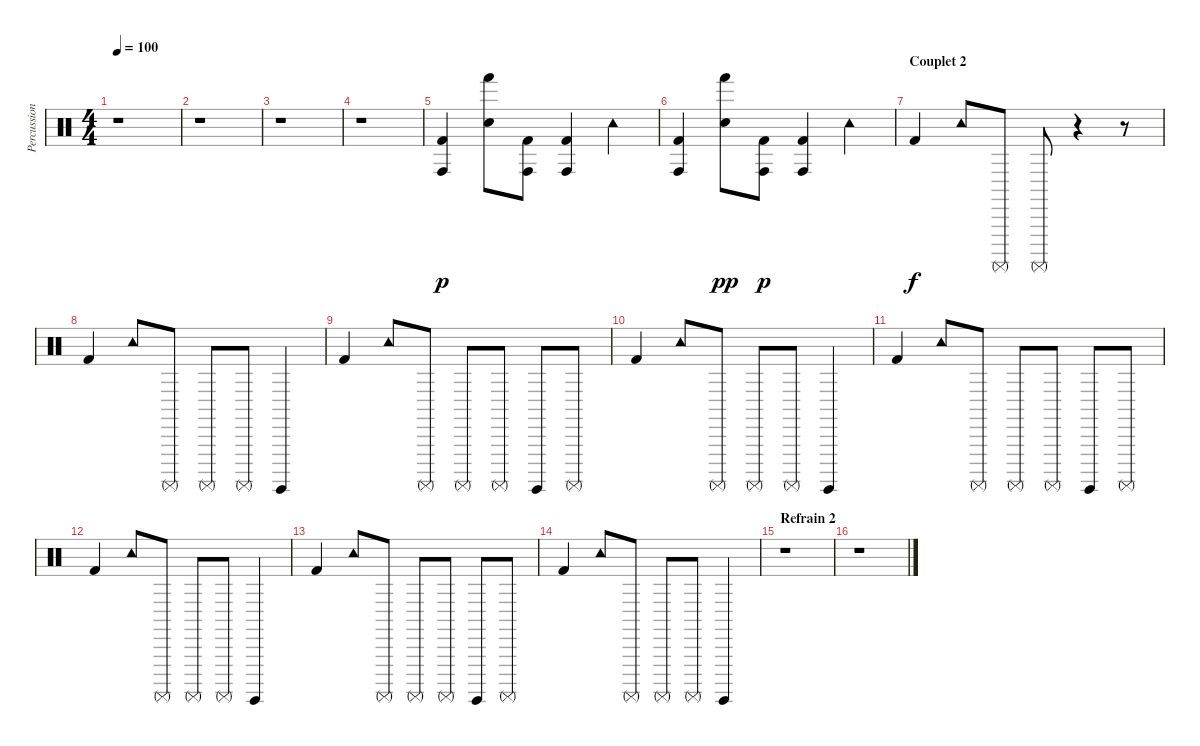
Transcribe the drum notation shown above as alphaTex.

\track ("Percussions" "Percussion") {instrument percussion}
\staff {score}
\articulation defaults
\ts (4 4)
\tempo 100
\clef neutral
\ks c
r.1{dy p} |
r.1 |
r.1 |
r.1 |
("Conga high (hit)" "Kick (hit) 2").4 ("Hand (hit)" "Electric Snare (hit)").8 ("Conga high (hit)" "Kick (hit) 2").8 ("Conga high (hit)" "Kick (hit) 2").4 "Tambourine (hit)".4 |
("Conga high (hit)" "Kick (hit) 2").4 ("Hand (hit)" "Electric Snare (hit)").8{dy pp} ("Conga high (hit)" "Kick (hit) 2").8{dy p} ("Conga high (hit)" "Kick (hit) 2").4 "Tambourine (hit)".4 |
\section ("" "Couplet 2")
"Kick (hit) 2".4{dy f} "Tambourine (hit)".8 "Surdo (mute)".8 "Surdo (mute)".8 r.4 r.8 |
"Kick (hit) 2".4 "Tambourine (hit)".8 "Surdo (mute)".8 "Surdo (mute)".8 "Surdo (mute)".8 "Surdo (hit)".4 |
"Kick (hit) 2".4 "Tambourine (hit)".8 "Surdo (mute)".8 "Surdo (mute)".8 "Surdo (mute)".8 "Surdo (hit)".8 "Surdo (mute)".8 |
"Kick (hit) 2".4 "Tambourine (hit)".8 "Surdo (mute)".8 "Surdo (mute)".8 "Surdo (mute)".8 "Surdo (hit)".4 |
"Kick (hit) 2".4 "Tambourine (hit)".8 "Surdo (mute)".8 "Surdo (mute)".8 "Surdo (mute)".8 "Surdo (hit)".8 "Surdo (mute)".8 |
"Kick (hit) 2".4 "Tambourine (hit)".8 "Surdo (mute)".8 "Surdo (mute)".8 "Surdo (mute)".8 "Surdo (hit)".4 |
"Kick (hit) 2".4 "Tambourine (hit)".8 "Surdo (mute)".8 "Surdo (mute)".8 "Surdo (mute)".8 "Surdo (hit)".8 "Surdo (mute)".8 |
"Kick (hit) 2".4 "Tambourine (hit)".8 "Surdo (mute)".8 "Surdo (mute)".8 "Surdo (mute)".8 "Surdo (hit)".4 |
\section ("" "Refrain 2")
r.1 |
r.1
